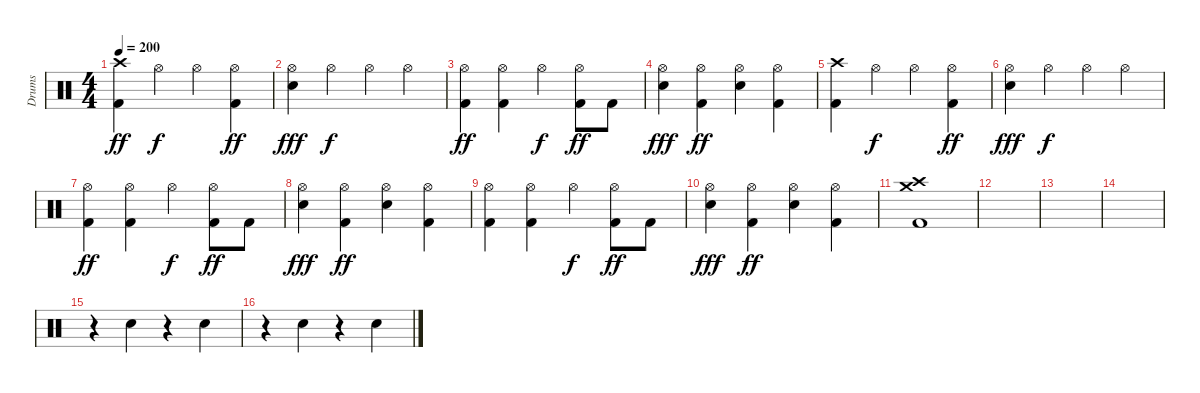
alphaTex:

\track ("Drums" "Drums") {instrument percussion}
\staff {score}
\articulation defaults
\ts (4 4)
\tempo 200
\clef neutral
\ks c
("Crash high (hit)" "Kick (hit) 2").4{dy ff} "Hi-Hat (open)".4{dy f} "Hi-Hat (open)".4 ("Hi-Hat (open)" "Kick (hit) 2").4{dy ff} |
("Hi-Hat (open)" "Electric Snare (hit)").4{dy fff} "Hi-Hat (open)".4{dy f} "Hi-Hat (open)".4 "Hi-Hat (open)".4 |
("Hi-Hat (open)" "Kick (hit) 2").4{dy ff} ("Hi-Hat (open)" "Kick (hit) 2").4 "Hi-Hat (open)".4{dy f} ("Hi-Hat (open)" "Kick (hit) 2").8{dy ff} "Kick (hit) 2".8 |
("Hi-Hat (open)" "Electric Snare (hit)").4{dy fff} ("Hi-Hat (open)" "Kick (hit) 2").4{dy ff} ("Hi-Hat (open)" "Electric Snare (hit)").4 ("Hi-Hat (open)" "Kick (hit) 2").4 |
("Crash high (hit)" "Kick (hit) 2").4 "Hi-Hat (open)".4{dy f} "Hi-Hat (open)".4 ("Hi-Hat (open)" "Kick (hit) 2").4{dy ff} |
("Hi-Hat (open)" "Electric Snare (hit)").4{dy fff} "Hi-Hat (open)".4{dy f} "Hi-Hat (open)".4 "Hi-Hat (open)".4 |
("Hi-Hat (open)" "Kick (hit) 2").4{dy ff} ("Hi-Hat (open)" "Kick (hit) 2").4 "Hi-Hat (open)".4{dy f} ("Hi-Hat (open)" "Kick (hit) 2").8{dy ff} "Kick (hit) 2".8 |
("Hi-Hat (open)" "Electric Snare (hit)").4{dy fff} ("Hi-Hat (open)" "Kick (hit) 2").4{dy ff} ("Hi-Hat (open)" "Electric Snare (hit)").4 ("Hi-Hat (open)" "Kick (hit) 2").4 |
("Hi-Hat (open)" "Kick (hit) 2").4 ("Hi-Hat (open)" "Kick (hit) 2").4 "Hi-Hat (open)".4{dy f} ("Hi-Hat (open)" "Kick (hit) 2").8{dy ff} "Kick (hit) 2".8 |
("Hi-Hat (open)" "Electric Snare (hit)").4{dy fff} ("Hi-Hat (open)" "Kick (hit) 2").4{dy ff} ("Hi-Hat (open)" "Electric Snare (hit)").4 ("Hi-Hat (open)" "Kick (hit) 2").4 |
("Crash high (hit)" "Crash medium (hit)" "Kick (hit) 2").1 |
|
|
|
r.4 "Electric Snare (hit)".4 r.4 "Electric Snare (hit)".4 |
r.4 "Electric Snare (hit)".4 r.4 "Electric Snare (hit)".4
